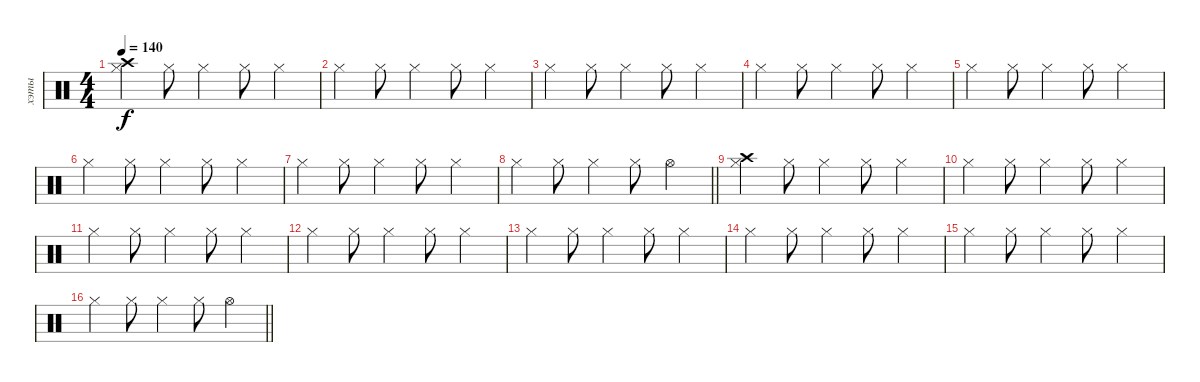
\track ("хэты" "хэты") {instrument percussion}
\staff {score}
\articulation defaults
\ts (4 4)
\tempo 140
\clef neutral
\ks c
("Hi-Hat (closed)" "Crash high (hit)").4{dy f} "Hi-Hat (closed)".8 "Hi-Hat (closed)".4 "Hi-Hat (closed)".8 "Hi-Hat (closed)".4 |
"Hi-Hat (closed)".4 "Hi-Hat (closed)".8 "Hi-Hat (closed)".4 "Hi-Hat (closed)".8 "Hi-Hat (closed)".4 |
"Hi-Hat (closed)".4 "Hi-Hat (closed)".8 "Hi-Hat (closed)".4 "Hi-Hat (closed)".8 "Hi-Hat (closed)".4 |
"Hi-Hat (closed)".4 "Hi-Hat (closed)".8 "Hi-Hat (closed)".4 "Hi-Hat (closed)".8 "Hi-Hat (closed)".4 |
"Hi-Hat (closed)".4 "Hi-Hat (closed)".8 "Hi-Hat (closed)".4 "Hi-Hat (closed)".8 "Hi-Hat (closed)".4 |
"Hi-Hat (closed)".4 "Hi-Hat (closed)".8 "Hi-Hat (closed)".4 "Hi-Hat (closed)".8 "Hi-Hat (closed)".4 |
"Hi-Hat (closed)".4 "Hi-Hat (closed)".8 "Hi-Hat (closed)".4 "Hi-Hat (closed)".8 "Hi-Hat (closed)".4 |
\barLineRight lightlight "Hi-Hat (closed)".4 "Hi-Hat (closed)".8 "Hi-Hat (closed)".4 "Hi-Hat (closed)".8 "Hi-Hat (open)".4
|
("Hi-Hat (closed)" "Crash high (hit)").4 "Hi-Hat (closed)".8 "Hi-Hat (closed)".4 "Hi-Hat (closed)".8 "Hi-Hat (closed)".4 |
"Hi-Hat (closed)".4 "Hi-Hat (closed)".8 "Hi-Hat (closed)".4 "Hi-Hat (closed)".8 "Hi-Hat (closed)".4 |
"Hi-Hat (closed)".4 "Hi-Hat (closed)".8 "Hi-Hat (closed)".4 "Hi-Hat (closed)".8 "Hi-Hat (closed)".4 |
"Hi-Hat (closed)".4 "Hi-Hat (closed)".8 "Hi-Hat (closed)".4 "Hi-Hat (closed)".8 "Hi-Hat (closed)".4 |
"Hi-Hat (closed)".4 "Hi-Hat (closed)".8 "Hi-Hat (closed)".4 "Hi-Hat (closed)".8 "Hi-Hat (closed)".4 |
"Hi-Hat (closed)".4 "Hi-Hat (closed)".8 "Hi-Hat (closed)".4 "Hi-Hat (closed)".8 "Hi-Hat (closed)".4 |
"Hi-Hat (closed)".4 "Hi-Hat (closed)".8 "Hi-Hat (closed)".4 "Hi-Hat (closed)".8 "Hi-Hat (closed)".4 |
\barLineRight lightlight "Hi-Hat (closed)".4 "Hi-Hat (closed)".8 "Hi-Hat (closed)".4 "Hi-Hat (closed)".8 "Hi-Hat (open)".4
